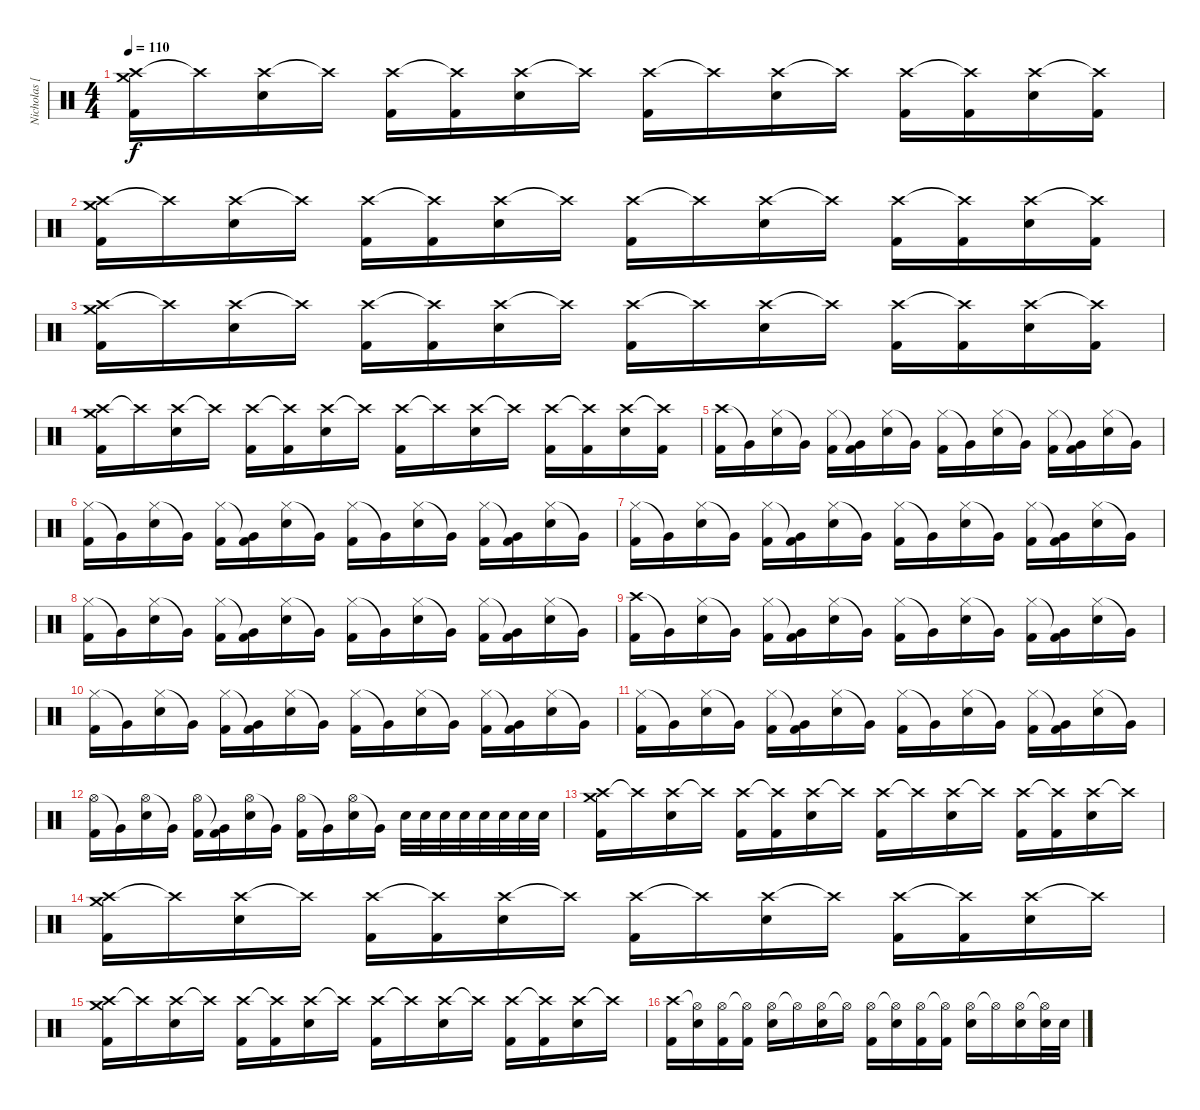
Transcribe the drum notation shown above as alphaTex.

\track ("Nicholas [Drums]" "Nicholas [") {instrument percussion}
\staff {score}
\articulation defaults
\ts (4 4)
\tempo 110
\clef neutral
\ks c
("Crash high (hit)" "Crash medium (hit)" "Kick (hit) 2").16{dy f} "Crash high (hit)"{t}.16 ("Crash high (hit)" "Snare (hit) 2").16 "Crash high (hit)"{t}.16 ("Crash high (hit)" "Kick (hit) 2").16 ("Crash high (hit)"{t} "Kick (hit) 2").16 ("Crash high (hit)" "Snare (hit) 2").16 "Crash high (hit)"{t}.16 ("Crash high (hit)" "Kick (hit) 2").16 "Crash high (hit)"{t}.16 ("Crash high (hit)" "Snare (hit) 2").16 "Crash high (hit)"{t}.16 ("Crash high (hit)" "Kick (hit) 2").16 ("Crash high (hit)"{t} "Kick (hit) 2").16 ("Crash high (hit)" "Snare (hit) 2").16 ("Crash high (hit)"{t} "Kick (hit) 2").16 |
("Crash high (hit)" "Crash medium (hit)" "Kick (hit) 2").16 "Crash high (hit)"{t}.16 ("Crash high (hit)" "Snare (hit) 2").16 "Crash high (hit)"{t}.16 ("Crash high (hit)" "Kick (hit) 2").16 ("Crash high (hit)"{t} "Kick (hit) 2").16 ("Crash high (hit)" "Snare (hit) 2").16 "Crash high (hit)"{t}.16 ("Crash high (hit)" "Kick (hit) 2").16 "Crash high (hit)"{t}.16 ("Crash high (hit)" "Snare (hit) 2").16 "Crash high (hit)"{t}.16 ("Crash high (hit)" "Kick (hit) 2").16 ("Crash high (hit)"{t} "Kick (hit) 2").16 ("Crash high (hit)" "Snare (hit) 2").16 ("Crash high (hit)"{t} "Kick (hit) 2").16 |
("Crash high (hit)" "Crash medium (hit)" "Kick (hit) 2").16 "Crash high (hit)"{t}.16 ("Crash high (hit)" "Snare (hit) 2").16 "Crash high (hit)"{t}.16 ("Crash high (hit)" "Kick (hit) 2").16 ("Crash high (hit)"{t} "Kick (hit) 2").16 ("Crash high (hit)" "Snare (hit) 2").16 "Crash high (hit)"{t}.16 ("Crash high (hit)" "Kick (hit) 2").16 "Crash high (hit)"{t}.16 ("Crash high (hit)" "Snare (hit) 2").16 "Crash high (hit)"{t}.16 ("Crash high (hit)" "Kick (hit) 2").16 ("Crash high (hit)"{t} "Kick (hit) 2").16 ("Crash high (hit)" "Snare (hit) 2").16 ("Crash high (hit)"{t} "Kick (hit) 2").16 |
("Crash high (hit)" "Crash medium (hit)" "Kick (hit) 2").16 "Crash high (hit)"{t}.16 ("Crash high (hit)" "Snare (hit) 2").16 "Crash high (hit)"{t}.16 ("Crash high (hit)" "Kick (hit) 2").16 ("Crash high (hit)"{t} "Kick (hit) 2").16 ("Crash high (hit)" "Snare (hit) 2").16 "Crash high (hit)"{t}.16 ("Crash high (hit)" "Kick (hit) 2").16 "Crash high (hit)"{t}.16 ("Crash high (hit)" "Snare (hit) 2").16 "Crash high (hit)"{t}.16 ("Crash high (hit)" "Kick (hit) 2").16 ("Crash high (hit)"{t} "Kick (hit) 2").16 ("Crash high (hit)" "Snare (hit) 2").16 ("Crash high (hit)"{t} "Kick (hit) 2").16 |
("Crash high (hit)" "Kick (hit) 2").16 "Very Low Tom (hit)"{t}.16 ("Hi-Hat (closed)" "Snare (hit) 2").16 "Very Low Tom (hit)"{t}.16 ("Hi-Hat (closed)" "Kick (hit) 2").16 ("Very Low Tom (hit)"{t} "Kick (hit) 2").16 ("Hi-Hat (closed)" "Snare (hit) 2").16 "Very Low Tom (hit)"{t}.16 ("Hi-Hat (closed)" "Kick (hit) 2").16 "Very Low Tom (hit)"{t}.16 ("Hi-Hat (closed)" "Snare (hit) 2").16 "Very Low Tom (hit)"{t}.16 ("Hi-Hat (closed)" "Kick (hit) 2").16 ("Very Low Tom (hit)"{t} "Kick (hit) 2").16 ("Hi-Hat (closed)" "Snare (hit) 2").16 "Very Low Tom (hit)"{t}.16 |
("Hi-Hat (closed)" "Kick (hit) 2").16 "Very Low Tom (hit)"{t}.16 ("Hi-Hat (closed)" "Snare (hit) 2").16 "Very Low Tom (hit)"{t}.16 ("Hi-Hat (closed)" "Kick (hit) 2").16 ("Very Low Tom (hit)"{t} "Kick (hit) 2").16 ("Hi-Hat (closed)" "Snare (hit) 2").16 "Very Low Tom (hit)"{t}.16 ("Hi-Hat (closed)" "Kick (hit) 2").16 "Very Low Tom (hit)"{t}.16 ("Hi-Hat (closed)" "Snare (hit) 2").16 "Very Low Tom (hit)"{t}.16 ("Hi-Hat (closed)" "Kick (hit) 2").16 ("Very Low Tom (hit)"{t} "Kick (hit) 2").16 ("Hi-Hat (closed)" "Snare (hit) 2").16 "Very Low Tom (hit)"{t}.16 |
("Hi-Hat (closed)" "Kick (hit) 2").16 "Very Low Tom (hit)"{t}.16 ("Hi-Hat (closed)" "Snare (hit) 2").16 "Very Low Tom (hit)"{t}.16 ("Hi-Hat (closed)" "Kick (hit) 2").16 ("Very Low Tom (hit)"{t} "Kick (hit) 2").16 ("Hi-Hat (closed)" "Snare (hit) 2").16 "Very Low Tom (hit)"{t}.16 ("Hi-Hat (closed)" "Kick (hit) 2").16 "Very Low Tom (hit)"{t}.16 ("Hi-Hat (closed)" "Snare (hit) 2").16 "Very Low Tom (hit)"{t}.16 ("Hi-Hat (closed)" "Kick (hit) 2").16 ("Very Low Tom (hit)"{t} "Kick (hit) 2").16 ("Hi-Hat (closed)" "Snare (hit) 2").16 "Very Low Tom (hit)"{t}.16 |
("Hi-Hat (closed)" "Kick (hit) 2").16 "Very Low Tom (hit)"{t}.16 ("Hi-Hat (closed)" "Snare (hit) 2").16 "Very Low Tom (hit)"{t}.16 ("Hi-Hat (closed)" "Kick (hit) 2").16 ("Very Low Tom (hit)"{t} "Kick (hit) 2").16 ("Hi-Hat (closed)" "Snare (hit) 2").16 "Very Low Tom (hit)"{t}.16 ("Hi-Hat (closed)" "Kick (hit) 2").16 "Very Low Tom (hit)"{t}.16 ("Hi-Hat (closed)" "Snare (hit) 2").16 "Very Low Tom (hit)"{t}.16 ("Hi-Hat (closed)" "Kick (hit) 2").16 ("Very Low Tom (hit)"{t} "Kick (hit) 2").16 ("Hi-Hat (closed)" "Snare (hit) 2").16 "Very Low Tom (hit)"{t}.16 |
("Crash high (hit)" "Kick (hit) 2").16 "Very Low Tom (hit)"{t}.16 ("Hi-Hat (closed)" "Snare (hit) 2").16 "Very Low Tom (hit)"{t}.16 ("Hi-Hat (closed)" "Kick (hit) 2").16 ("Very Low Tom (hit)"{t} "Kick (hit) 2").16 ("Hi-Hat (closed)" "Snare (hit) 2").16 "Very Low Tom (hit)"{t}.16 ("Hi-Hat (closed)" "Kick (hit) 2").16 "Very Low Tom (hit)"{t}.16 ("Hi-Hat (closed)" "Snare (hit) 2").16 "Very Low Tom (hit)"{t}.16 ("Hi-Hat (closed)" "Kick (hit) 2").16 ("Very Low Tom (hit)"{t} "Kick (hit) 2").16 ("Hi-Hat (closed)" "Snare (hit) 2").16 "Very Low Tom (hit)"{t}.16 |
("Hi-Hat (closed)" "Kick (hit) 2").16 "Very Low Tom (hit)"{t}.16 ("Hi-Hat (closed)" "Snare (hit) 2").16 "Very Low Tom (hit)"{t}.16 ("Hi-Hat (closed)" "Kick (hit) 2").16 ("Very Low Tom (hit)"{t} "Kick (hit) 2").16 ("Hi-Hat (closed)" "Snare (hit) 2").16 "Very Low Tom (hit)"{t}.16 ("Hi-Hat (closed)" "Kick (hit) 2").16 "Very Low Tom (hit)"{t}.16 ("Hi-Hat (closed)" "Snare (hit) 2").16 "Very Low Tom (hit)"{t}.16 ("Hi-Hat (closed)" "Kick (hit) 2").16 ("Very Low Tom (hit)"{t} "Kick (hit) 2").16 ("Hi-Hat (closed)" "Snare (hit) 2").16 "Very Low Tom (hit)"{t}.16 |
("Hi-Hat (closed)" "Kick (hit) 2").16 "Very Low Tom (hit)"{t}.16 ("Hi-Hat (closed)" "Snare (hit) 2").16 "Very Low Tom (hit)"{t}.16 ("Hi-Hat (closed)" "Kick (hit) 2").16 ("Very Low Tom (hit)"{t} "Kick (hit) 2").16 ("Hi-Hat (closed)" "Snare (hit) 2").16 "Very Low Tom (hit)"{t}.16 ("Hi-Hat (closed)" "Kick (hit) 2").16 "Very Low Tom (hit)"{t}.16 ("Hi-Hat (closed)" "Snare (hit) 2").16 "Very Low Tom (hit)"{t}.16 ("Hi-Hat (closed)" "Kick (hit) 2").16 ("Very Low Tom (hit)"{t} "Kick (hit) 2").16 ("Hi-Hat (closed)" "Snare (hit) 2").16 "Very Low Tom (hit)"{t}.16 |
("Hi-Hat (open)" "Kick (hit) 2").16 "Very Low Tom (hit)"{t}.16 ("Hi-Hat (open)" "Snare (hit) 2").16 "Very Low Tom (hit)"{t}.16 ("Hi-Hat (open)" "Kick (hit) 2").16 ("Very Low Tom (hit)"{t} "Kick (hit) 2").16 ("Hi-Hat (open)" "Snare (hit) 2").16 "Very Low Tom (hit)"{t}.16 ("Hi-Hat (open)" "Kick (hit) 2").16 "Very Low Tom (hit)"{t}.16 ("Hi-Hat (open)" "Snare (hit) 2").16 "Very Low Tom (hit)"{t}.16 "Snare (hit) 2".32 "Snare (hit) 2".32 "Snare (hit) 2".32 "Snare (hit) 2".32 "Snare (hit) 2".32 "Snare (hit) 2".32 "Snare (hit) 2".32 "Snare (hit) 2".32 |
("Crash high (hit)" "Crash medium (hit)" "Kick (hit) 2").16 "Crash high (hit)"{t}.16 ("Crash high (hit)" "Snare (hit) 2").16 "Crash high (hit)"{t}.16 ("Crash high (hit)" "Kick (hit) 2").16 ("Crash high (hit)"{t} "Kick (hit) 2").16 ("Crash high (hit)" "Snare (hit) 2").16 "Crash high (hit)"{t}.16 ("Crash high (hit)" "Kick (hit) 2").16 "Crash high (hit)"{t}.16 ("Crash high (hit)" "Snare (hit) 2").16 "Crash high (hit)"{t}.16 ("Crash high (hit)" "Kick (hit) 2").16 ("Crash high (hit)"{t} "Kick (hit) 2").16 ("Crash high (hit)" "Snare (hit) 2").16 "Crash high (hit)"{t}.16 |
("Crash high (hit)" "Crash medium (hit)" "Kick (hit) 2").16 "Crash high (hit)"{t}.16 ("Crash high (hit)" "Snare (hit) 2").16 "Crash high (hit)"{t}.16 ("Crash high (hit)" "Kick (hit) 2").16 ("Crash high (hit)"{t} "Kick (hit) 2").16 ("Crash high (hit)" "Snare (hit) 2").16 "Crash high (hit)"{t}.16 ("Crash high (hit)" "Kick (hit) 2").16 "Crash high (hit)"{t}.16 ("Crash high (hit)" "Snare (hit) 2").16 "Crash high (hit)"{t}.16 ("Crash high (hit)" "Kick (hit) 2").16 ("Crash high (hit)"{t} "Kick (hit) 2").16 ("Crash high (hit)" "Snare (hit) 2").16 "Crash high (hit)"{t}.16 |
("Crash high (hit)" "Crash medium (hit)" "Kick (hit) 2").16 "Crash high (hit)"{t}.16 ("Crash high (hit)" "Snare (hit) 2").16 "Crash high (hit)"{t}.16 ("Crash high (hit)" "Kick (hit) 2").16 ("Crash high (hit)"{t} "Kick (hit) 2").16 ("Crash high (hit)" "Snare (hit) 2").16 "Crash high (hit)"{t}.16 ("Crash high (hit)" "Kick (hit) 2").16 "Crash high (hit)"{t}.16 ("Crash high (hit)" "Snare (hit) 2").16 "Crash high (hit)"{t}.16 ("Crash high (hit)" "Kick (hit) 2").16 ("Crash high (hit)"{t} "Kick (hit) 2").16 ("Crash high (hit)" "Snare (hit) 2").16 "Crash high (hit)"{t}.16 |
("Crash high (hit)" "Kick (hit) 2").16 ("Hi-Hat (open)"{t} "Snare (hit) 2").16 ("Hi-Hat (open)" "Kick (hit) 2").16 ("Hi-Hat (open)"{t} "Kick (hit) 2").16 ("Hi-Hat (open)" "Snare (hit) 2").16 "Hi-Hat (open)"{t}.16 ("Hi-Hat (open)" "Snare (hit) 2").16 "Hi-Hat (open)"{t}.16 ("Hi-Hat (open)" "Kick (hit) 2").16 ("Hi-Hat (open)"{t} "Snare (hit) 2").16 ("Hi-Hat (open)" "Kick (hit) 2").16 ("Hi-Hat (open)"{t} "Kick (hit) 2").16 ("Hi-Hat (open)" "Snare (hit) 2").16 "Hi-Hat (open)"{t}.16 ("Hi-Hat (open)" "Snare (hit) 2").16 ("Hi-Hat (open)"{t} "Snare (hit) 2").32 "Snare (hit) 2".32
